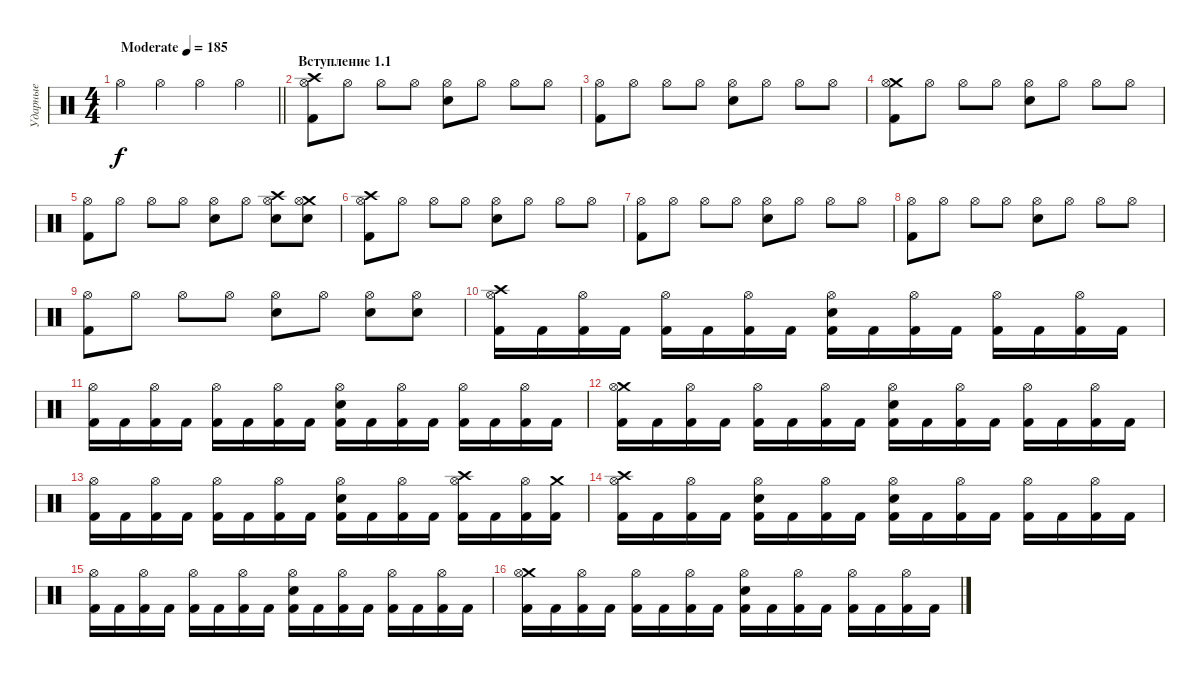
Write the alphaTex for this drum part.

\track ("Ударные" "Ударные") {instrument percussion}
\staff {score}
\articulation defaults
\ts (4 4)
\tempo (185 "Moderate")
\clef neutral
\barLineRight lightlight
\ks c "Hi-Hat (open)".4{dy f} "Hi-Hat (open)".4 "Hi-Hat (open)".4 "Hi-Hat (open)".4
|
\section ("" "Вступление 1.1")
("Crash high (hit)" "Hi-Hat (open)" "Kick (hit) 2").8 "Hi-Hat (open)".8 "Hi-Hat (open)".8 "Hi-Hat (open)".8 ("Hi-Hat (open)" "Snare (hit) 2").8 "Hi-Hat (open)".8 "Hi-Hat (open)".8 "Hi-Hat (open)".8 |
("Hi-Hat (open)" "Kick (hit) 2").8 "Hi-Hat (open)".8 "Hi-Hat (open)".8 "Hi-Hat (open)".8 ("Hi-Hat (open)" "Snare (hit) 2").8 "Hi-Hat (open)".8 "Hi-Hat (open)".8 "Hi-Hat (open)".8 |
("Crash medium (hit)" "Hi-Hat (open)" "Kick (hit) 2").8 "Hi-Hat (open)".8 "Hi-Hat (open)".8 "Hi-Hat (open)".8 ("Hi-Hat (open)" "Snare (hit) 2").8 "Hi-Hat (open)".8 "Hi-Hat (open)".8 "Hi-Hat (open)".8 |
("Hi-Hat (open)" "Kick (hit) 2").8 "Hi-Hat (open)".8 "Hi-Hat (open)".8 "Hi-Hat (open)".8 ("Hi-Hat (open)" "Snare (hit) 2").8 "Hi-Hat (open)".8 ("Crash high (hit)" "Hi-Hat (open)" "Electric Snare (hit)").8 ("Crash medium (hit)" "Hi-Hat (open)" "Snare (hit) 2").8 |
("Crash high (hit)" "Hi-Hat (open)" "Kick (hit) 2").8 "Hi-Hat (open)".8 "Hi-Hat (open)".8 "Hi-Hat (open)".8 ("Hi-Hat (open)" "Snare (hit) 2").8 "Hi-Hat (open)".8 "Hi-Hat (open)".8 "Hi-Hat (open)".8 |
("Hi-Hat (open)" "Kick (hit) 2").8 "Hi-Hat (open)".8 "Hi-Hat (open)".8 "Hi-Hat (open)".8 ("Hi-Hat (open)" "Snare (hit) 2").8 "Hi-Hat (open)".8 "Hi-Hat (open)".8 "Hi-Hat (open)".8 |
("Hi-Hat (open)" "Kick (hit) 2").8 "Hi-Hat (open)".8 "Hi-Hat (open)".8 "Hi-Hat (open)".8 ("Hi-Hat (open)" "Snare (hit) 2").8 "Hi-Hat (open)".8 "Hi-Hat (open)".8 "Hi-Hat (open)".8 |
("Hi-Hat (open)" "Kick (hit) 2").8 "Hi-Hat (open)".8 "Hi-Hat (open)".8 "Hi-Hat (open)".8 ("Hi-Hat (open)" "Snare (hit) 2").8 "Hi-Hat (open)".8 ("Hi-Hat (open)" "Electric Snare (hit)").8 ("Hi-Hat (open)" "Snare (hit) 2").8 |
("Crash high (hit)" "Hi-Hat (open)" "Kick (hit) 2").16 "Kick (hit) 2".16 ("Hi-Hat (open)" "Kick (hit) 2").16 "Kick (hit) 2".16 ("Hi-Hat (open)" "Kick (hit) 2").16 "Kick (hit) 2".16 ("Hi-Hat (open)" "Kick (hit) 2").16 "Kick (hit) 2".16 ("Snare (hit) 2" "Hi-Hat (open)" "Kick (hit) 2").16 "Kick (hit) 2".16 ("Hi-Hat (open)" "Kick (hit) 2").16 "Kick (hit) 2".16 ("Hi-Hat (open)" "Kick (hit) 2").16 "Kick (hit) 2".16 ("Hi-Hat (open)" "Kick (hit) 2").16 "Kick (hit) 2".16 |
("Hi-Hat (open)" "Kick (hit) 2").16 "Kick (hit) 2".16 ("Hi-Hat (open)" "Kick (hit) 2").16 "Kick (hit) 2".16 ("Hi-Hat (open)" "Kick (hit) 2").16 "Kick (hit) 2".16 ("Hi-Hat (open)" "Kick (hit) 2").16 "Kick (hit) 2".16 ("Snare (hit) 2" "Hi-Hat (open)" "Kick (hit) 2").16 "Kick (hit) 2".16 ("Hi-Hat (open)" "Kick (hit) 2").16 "Kick (hit) 2".16 ("Hi-Hat (open)" "Kick (hit) 2").16 "Kick (hit) 2".16 ("Hi-Hat (open)" "Kick (hit) 2").16 "Kick (hit) 2".16 |
("Crash medium (hit)" "Hi-Hat (open)" "Kick (hit) 2").16 "Kick (hit) 2".16 ("Hi-Hat (open)" "Kick (hit) 2").16 "Kick (hit) 2".16 ("Hi-Hat (open)" "Kick (hit) 2").16 "Kick (hit) 2".16 ("Hi-Hat (open)" "Kick (hit) 2").16 "Kick (hit) 2".16 ("Snare (hit) 2" "Hi-Hat (open)" "Kick (hit) 2").16 "Kick (hit) 2".16 ("Hi-Hat (open)" "Kick (hit) 2").16 "Kick (hit) 2".16 ("Hi-Hat (open)" "Kick (hit) 2").16 "Kick (hit) 2".16 ("Hi-Hat (open)" "Kick (hit) 2").16 "Kick (hit) 2".16 |
("Hi-Hat (open)" "Kick (hit) 2").16 "Kick (hit) 2".16 ("Hi-Hat (open)" "Kick (hit) 2").16 "Kick (hit) 2".16 ("Hi-Hat (open)" "Kick (hit) 2").16 "Kick (hit) 2".16 ("Hi-Hat (open)" "Kick (hit) 2").16 "Kick (hit) 2".16 ("Snare (hit) 2" "Hi-Hat (open)" "Kick (hit) 2").16 "Kick (hit) 2".16 ("Hi-Hat (open)" "Kick (hit) 2").16 "Kick (hit) 2".16 ("Crash high (hit)" "Hi-Hat (open)" "Kick (hit) 2").16 "Kick (hit) 2".16 ("Hi-Hat (open)" "Kick (hit) 2").16 ("Crash medium (hit)" "Kick (hit) 2").16 |
("Crash high (hit)" "Hi-Hat (open)" "Kick (hit) 2").16 "Kick (hit) 2".16 ("Hi-Hat (open)" "Kick (hit) 2").16 "Kick (hit) 2".16 ("Snare (hit) 2" "Hi-Hat (open)" "Kick (hit) 2").16 "Kick (hit) 2".16 ("Hi-Hat (open)" "Kick (hit) 2").16 "Kick (hit) 2".16 ("Snare (hit) 2" "Hi-Hat (open)" "Kick (hit) 2").16 "Kick (hit) 2".16 ("Hi-Hat (open)" "Kick (hit) 2").16 "Kick (hit) 2".16 ("Hi-Hat (open)" "Kick (hit) 2").16 "Kick (hit) 2".16 ("Hi-Hat (open)" "Kick (hit) 2").16 "Kick (hit) 2".16 |
("Hi-Hat (open)" "Kick (hit) 2").16 "Kick (hit) 2".16 ("Hi-Hat (open)" "Kick (hit) 2").16 "Kick (hit) 2".16 ("Hi-Hat (open)" "Kick (hit) 2").16 "Kick (hit) 2".16 ("Hi-Hat (open)" "Kick (hit) 2").16 "Kick (hit) 2".16 ("Snare (hit) 2" "Hi-Hat (open)" "Kick (hit) 2").16 "Kick (hit) 2".16 ("Hi-Hat (open)" "Kick (hit) 2").16 "Kick (hit) 2".16 ("Hi-Hat (open)" "Kick (hit) 2").16 "Kick (hit) 2".16 ("Hi-Hat (open)" "Kick (hit) 2").16 "Kick (hit) 2".16 |
("Crash medium (hit)" "Hi-Hat (open)" "Kick (hit) 2").16 "Kick (hit) 2".16 ("Hi-Hat (open)" "Kick (hit) 2").16 "Kick (hit) 2".16 ("Hi-Hat (open)" "Kick (hit) 2").16 "Kick (hit) 2".16 ("Hi-Hat (open)" "Kick (hit) 2").16 "Kick (hit) 2".16 ("Snare (hit) 2" "Hi-Hat (open)" "Kick (hit) 2").16 "Kick (hit) 2".16 ("Hi-Hat (open)" "Kick (hit) 2").16 "Kick (hit) 2".16 ("Hi-Hat (open)" "Kick (hit) 2").16 "Kick (hit) 2".16 ("Hi-Hat (open)" "Kick (hit) 2").16 "Kick (hit) 2".16
